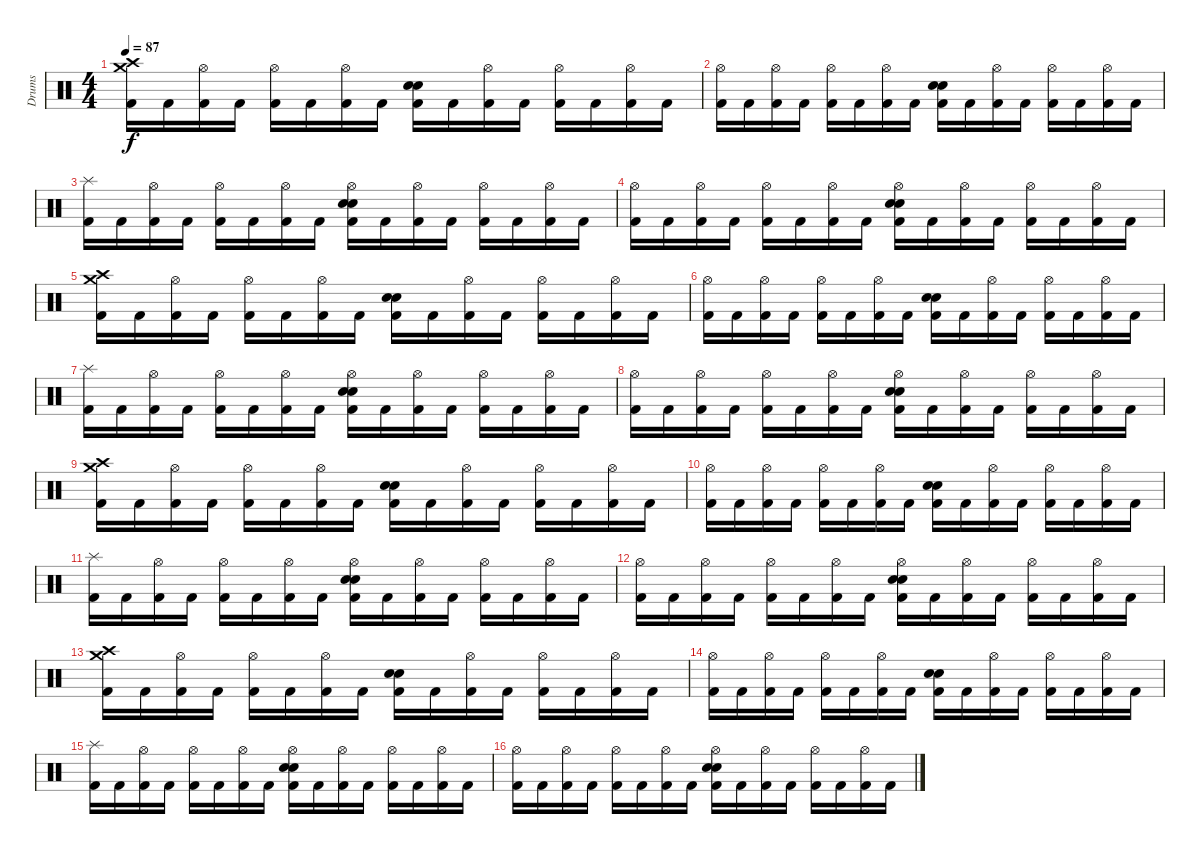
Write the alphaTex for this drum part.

\track ("Drums" "Drums") {instrument percussion}
\staff {score}
\articulation defaults
\ts (4 4)
\tempo 87
\clef neutral
\ks c
("Kick (hit) 2" "Crash medium (hit)" "Crash high (hit)").16{dy f} "Kick (hit) 2".16 ("Kick (hit) 2" "Hi-Hat (open)").16 "Kick (hit) 2".16 ("Kick (hit) 2" "Hi-Hat (open)").16 "Kick (hit) 2".16 ("Kick (hit) 2" "Hi-Hat (open)").16 "Kick (hit) 2".16 ("Kick (hit) 2" "Snare (hit) 2" "Snare (hit) 2").16 "Kick (hit) 2".16 ("Kick (hit) 2" "Hi-Hat (open)").16 "Kick (hit) 2".16 ("Kick (hit) 2" "Hi-Hat (open)").16 "Kick (hit) 2".16 ("Kick (hit) 2" "Hi-Hat (open)").16 "Kick (hit) 2".16 |
("Kick (hit) 2" "Hi-Hat (open)").16 "Kick (hit) 2".16 ("Kick (hit) 2" "Hi-Hat (open)").16 "Kick (hit) 2".16 ("Kick (hit) 2" "Hi-Hat (open)").16 "Kick (hit) 2".16 ("Kick (hit) 2" "Hi-Hat (open)").16 "Kick (hit) 2".16 ("Kick (hit) 2" "Electric Snare (hit)" "Electric Snare (hit)").16 "Kick (hit) 2".16 ("Kick (hit) 2" "Hi-Hat (open)").16 "Kick (hit) 2".16 ("Kick (hit) 2" "Hi-Hat (open)").16 "Kick (hit) 2".16 ("Kick (hit) 2" "Hi-Hat (open)").16 "Kick (hit) 2".16 |
("Kick (hit) 2" "Splash (hit)").16 "Kick (hit) 2".16 ("Kick (hit) 2" "Hi-Hat (open)").16 "Kick (hit) 2".16 ("Kick (hit) 2" "Hi-Hat (open)").16 "Kick (hit) 2".16 ("Kick (hit) 2" "Hi-Hat (open)").16 "Kick (hit) 2".16 ("Kick (hit) 2" "Snare (hit) 2" "Snare (hit) 2" "Hi-Hat (open)").16 "Kick (hit) 2".16 ("Kick (hit) 2" "Hi-Hat (open)").16 "Kick (hit) 2".16 ("Kick (hit) 2" "Hi-Hat (open)").16 "Kick (hit) 2".16 ("Kick (hit) 2" "Hi-Hat (open)").16 "Kick (hit) 2".16 |
("Kick (hit) 2" "Hi-Hat (open)").16 "Kick (hit) 2".16 ("Kick (hit) 2" "Hi-Hat (open)").16 "Kick (hit) 2".16 ("Kick (hit) 2" "Hi-Hat (open)").16 "Kick (hit) 2".16 ("Kick (hit) 2" "Hi-Hat (open)").16 "Kick (hit) 2".16 ("Kick (hit) 2" "Electric Snare (hit)" "Electric Snare (hit)" "Hi-Hat (open)").16 "Kick (hit) 2".16 ("Kick (hit) 2" "Hi-Hat (open)").16 "Kick (hit) 2".16 ("Kick (hit) 2" "Hi-Hat (open)").16 "Kick (hit) 2".16 ("Kick (hit) 2" "Hi-Hat (open)").16 "Kick (hit) 2".16 |
("Kick (hit) 2" "Crash medium (hit)" "Crash high (hit)").16 "Kick (hit) 2".16 ("Kick (hit) 2" "Hi-Hat (open)").16 "Kick (hit) 2".16 ("Kick (hit) 2" "Hi-Hat (open)").16 "Kick (hit) 2".16 ("Kick (hit) 2" "Hi-Hat (open)").16 "Kick (hit) 2".16 ("Kick (hit) 2" "Snare (hit) 2" "Snare (hit) 2").16 "Kick (hit) 2".16 ("Kick (hit) 2" "Hi-Hat (open)").16 "Kick (hit) 2".16 ("Kick (hit) 2" "Hi-Hat (open)").16 "Kick (hit) 2".16 ("Kick (hit) 2" "Hi-Hat (open)").16 "Kick (hit) 2".16 |
("Kick (hit) 2" "Hi-Hat (open)").16 "Kick (hit) 2".16 ("Kick (hit) 2" "Hi-Hat (open)").16 "Kick (hit) 2".16 ("Kick (hit) 2" "Hi-Hat (open)").16 "Kick (hit) 2".16 ("Kick (hit) 2" "Hi-Hat (open)").16 "Kick (hit) 2".16 ("Kick (hit) 2" "Electric Snare (hit)" "Electric Snare (hit)").16 "Kick (hit) 2".16 ("Kick (hit) 2" "Hi-Hat (open)").16 "Kick (hit) 2".16 ("Kick (hit) 2" "Hi-Hat (open)").16 "Kick (hit) 2".16 ("Kick (hit) 2" "Hi-Hat (open)").16 "Kick (hit) 2".16 |
("Kick (hit) 2" "Splash (hit)").16 "Kick (hit) 2".16 ("Kick (hit) 2" "Hi-Hat (open)").16 "Kick (hit) 2".16 ("Kick (hit) 2" "Hi-Hat (open)").16 "Kick (hit) 2".16 ("Kick (hit) 2" "Hi-Hat (open)").16 "Kick (hit) 2".16 ("Kick (hit) 2" "Snare (hit) 2" "Snare (hit) 2" "Hi-Hat (open)").16 "Kick (hit) 2".16 ("Kick (hit) 2" "Hi-Hat (open)").16 "Kick (hit) 2".16 ("Kick (hit) 2" "Hi-Hat (open)").16 "Kick (hit) 2".16 ("Kick (hit) 2" "Hi-Hat (open)").16 "Kick (hit) 2".16 |
("Kick (hit) 2" "Hi-Hat (open)").16 "Kick (hit) 2".16 ("Kick (hit) 2" "Hi-Hat (open)").16 "Kick (hit) 2".16 ("Kick (hit) 2" "Hi-Hat (open)").16 "Kick (hit) 2".16 ("Kick (hit) 2" "Hi-Hat (open)").16 "Kick (hit) 2".16 ("Kick (hit) 2" "Electric Snare (hit)" "Electric Snare (hit)" "Hi-Hat (open)").16 "Kick (hit) 2".16 ("Kick (hit) 2" "Hi-Hat (open)").16 "Kick (hit) 2".16 ("Kick (hit) 2" "Hi-Hat (open)").16 "Kick (hit) 2".16 ("Kick (hit) 2" "Hi-Hat (open)").16 "Kick (hit) 2".16 |
("Kick (hit) 2" "Crash medium (hit)" "Crash high (hit)").16 "Kick (hit) 2".16 ("Kick (hit) 2" "Hi-Hat (open)").16 "Kick (hit) 2".16 ("Kick (hit) 2" "Hi-Hat (open)").16 "Kick (hit) 2".16 ("Kick (hit) 2" "Hi-Hat (open)").16 "Kick (hit) 2".16 ("Kick (hit) 2" "Snare (hit) 2" "Snare (hit) 2").16 "Kick (hit) 2".16 ("Kick (hit) 2" "Hi-Hat (open)").16 "Kick (hit) 2".16 ("Kick (hit) 2" "Hi-Hat (open)").16 "Kick (hit) 2".16 ("Kick (hit) 2" "Hi-Hat (open)").16 "Kick (hit) 2".16 |
("Kick (hit) 2" "Hi-Hat (open)").16 "Kick (hit) 2".16 ("Kick (hit) 2" "Hi-Hat (open)").16 "Kick (hit) 2".16 ("Kick (hit) 2" "Hi-Hat (open)").16 "Kick (hit) 2".16 ("Kick (hit) 2" "Hi-Hat (open)").16 "Kick (hit) 2".16 ("Kick (hit) 2" "Electric Snare (hit)" "Electric Snare (hit)").16 "Kick (hit) 2".16 ("Kick (hit) 2" "Hi-Hat (open)").16 "Kick (hit) 2".16 ("Kick (hit) 2" "Hi-Hat (open)").16 "Kick (hit) 2".16 ("Kick (hit) 2" "Hi-Hat (open)").16 "Kick (hit) 2".16 |
("Kick (hit) 2" "Splash (hit)").16 "Kick (hit) 2".16 ("Kick (hit) 2" "Hi-Hat (open)").16 "Kick (hit) 2".16 ("Kick (hit) 2" "Hi-Hat (open)").16 "Kick (hit) 2".16 ("Kick (hit) 2" "Hi-Hat (open)").16 "Kick (hit) 2".16 ("Kick (hit) 2" "Snare (hit) 2" "Snare (hit) 2" "Hi-Hat (open)").16 "Kick (hit) 2".16 ("Kick (hit) 2" "Hi-Hat (open)").16 "Kick (hit) 2".16 ("Kick (hit) 2" "Hi-Hat (open)").16 "Kick (hit) 2".16 ("Kick (hit) 2" "Hi-Hat (open)").16 "Kick (hit) 2".16 |
("Kick (hit) 2" "Hi-Hat (open)").16 "Kick (hit) 2".16 ("Kick (hit) 2" "Hi-Hat (open)").16 "Kick (hit) 2".16 ("Kick (hit) 2" "Hi-Hat (open)").16 "Kick (hit) 2".16 ("Kick (hit) 2" "Hi-Hat (open)").16 "Kick (hit) 2".16 ("Kick (hit) 2" "Electric Snare (hit)" "Electric Snare (hit)" "Hi-Hat (open)").16 "Kick (hit) 2".16 ("Kick (hit) 2" "Hi-Hat (open)").16 "Kick (hit) 2".16 ("Kick (hit) 2" "Hi-Hat (open)").16 "Kick (hit) 2".16 ("Kick (hit) 2" "Hi-Hat (open)").16 "Kick (hit) 2".16 |
("Kick (hit) 2" "Crash medium (hit)" "Crash high (hit)").16 "Kick (hit) 2".16 ("Kick (hit) 2" "Hi-Hat (open)").16 "Kick (hit) 2".16 ("Kick (hit) 2" "Hi-Hat (open)").16 "Kick (hit) 2".16 ("Kick (hit) 2" "Hi-Hat (open)").16 "Kick (hit) 2".16 ("Kick (hit) 2" "Snare (hit) 2" "Snare (hit) 2").16 "Kick (hit) 2".16 ("Kick (hit) 2" "Hi-Hat (open)").16 "Kick (hit) 2".16 ("Kick (hit) 2" "Hi-Hat (open)").16 "Kick (hit) 2".16 ("Kick (hit) 2" "Hi-Hat (open)").16 "Kick (hit) 2".16 |
("Kick (hit) 2" "Hi-Hat (open)").16 "Kick (hit) 2".16 ("Kick (hit) 2" "Hi-Hat (open)").16 "Kick (hit) 2".16 ("Kick (hit) 2" "Hi-Hat (open)").16 "Kick (hit) 2".16 ("Kick (hit) 2" "Hi-Hat (open)").16 "Kick (hit) 2".16 ("Kick (hit) 2" "Electric Snare (hit)" "Electric Snare (hit)").16 "Kick (hit) 2".16 ("Kick (hit) 2" "Hi-Hat (open)").16 "Kick (hit) 2".16 ("Kick (hit) 2" "Hi-Hat (open)").16 "Kick (hit) 2".16 ("Kick (hit) 2" "Hi-Hat (open)").16 "Kick (hit) 2".16 |
("Kick (hit) 2" "Splash (hit)").16 "Kick (hit) 2".16 ("Kick (hit) 2" "Hi-Hat (open)").16 "Kick (hit) 2".16 ("Kick (hit) 2" "Hi-Hat (open)").16 "Kick (hit) 2".16 ("Kick (hit) 2" "Hi-Hat (open)").16 "Kick (hit) 2".16 ("Kick (hit) 2" "Snare (hit) 2" "Snare (hit) 2" "Hi-Hat (open)").16 "Kick (hit) 2".16 ("Kick (hit) 2" "Hi-Hat (open)").16 "Kick (hit) 2".16 ("Kick (hit) 2" "Hi-Hat (open)").16 "Kick (hit) 2".16 ("Kick (hit) 2" "Hi-Hat (open)").16 "Kick (hit) 2".16 |
("Kick (hit) 2" "Hi-Hat (open)").16 "Kick (hit) 2".16 ("Kick (hit) 2" "Hi-Hat (open)").16 "Kick (hit) 2".16 ("Kick (hit) 2" "Hi-Hat (open)").16 "Kick (hit) 2".16 ("Kick (hit) 2" "Hi-Hat (open)").16 "Kick (hit) 2".16 ("Kick (hit) 2" "Electric Snare (hit)" "Electric Snare (hit)" "Hi-Hat (open)").16 "Kick (hit) 2".16 ("Kick (hit) 2" "Hi-Hat (open)").16 "Kick (hit) 2".16 ("Kick (hit) 2" "Hi-Hat (open)").16 "Kick (hit) 2".16 ("Kick (hit) 2" "Hi-Hat (open)").16 "Kick (hit) 2".16
